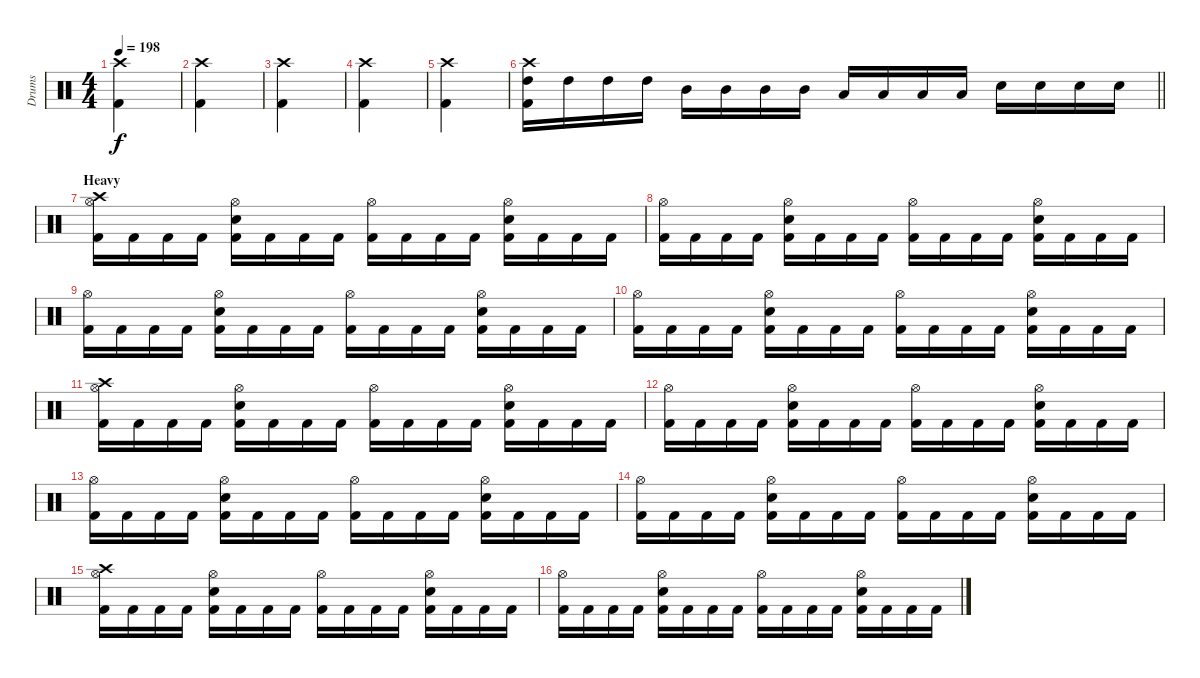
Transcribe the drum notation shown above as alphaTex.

\track ("Drums" "Drums") {instrument percussion}
\staff {score}
\articulation defaults
\ts (4 4)
\tempo 198
\clef neutral
\ks c
("Crash high (hit)" "Kick (hit) 2").4{dy f} |
("Crash high (hit)" "Kick (hit) 2").4 |
("Crash high (hit)" "Kick (hit) 2").4 |
("Crash high (hit)" "Kick (hit) 2").4 |
("Crash high (hit)" "Kick (hit) 2").4 |
\barLineRight lightlight
("Crash high (hit)" "High Tom (hit)" "Kick (hit) 2").16 "High Tom (hit)".16 "High Tom (hit)".16 "High Tom (hit)".16 "Mid Tom (hit)".16 "Mid Tom (hit)".16 "Mid Tom (hit)".16 "Mid Tom (hit)".16 "Low Tom (hit)".16 "Low Tom (hit)".16 "Low Tom (hit)".16 "Low Tom (hit)".16 "Snare (hit) 2".16 "Snare (hit) 2".16 "Snare (hit) 2".16 "Snare (hit) 2".16 |
\section ("" "Heavy")
("Crash high (hit)" "Hi-Hat (open)" "Kick (hit) 2").16 "Kick (hit) 2".16 "Kick (hit) 2".16 "Kick (hit) 2".16 ("Hi-Hat (open)" "Snare (hit) 2" "Kick (hit) 2").16 "Kick (hit) 2".16 "Kick (hit) 2".16 "Kick (hit) 2".16 ("Hi-Hat (open)" "Kick (hit) 2").16 "Kick (hit) 2".16 "Kick (hit) 2".16 "Kick (hit) 2".16 ("Hi-Hat (open)" "Snare (hit) 2" "Kick (hit) 2").16 "Kick (hit) 2".16 "Kick (hit) 2".16 "Kick (hit) 2".16 |
("Hi-Hat (open)" "Kick (hit) 2").16 "Kick (hit) 2".16 "Kick (hit) 2".16 "Kick (hit) 2".16 ("Hi-Hat (open)" "Snare (hit) 2" "Kick (hit) 2").16 "Kick (hit) 2".16 "Kick (hit) 2".16 "Kick (hit) 2".16 ("Hi-Hat (open)" "Kick (hit) 2").16 "Kick (hit) 2".16 "Kick (hit) 2".16 "Kick (hit) 2".16 ("Hi-Hat (open)" "Snare (hit) 2" "Kick (hit) 2").16 "Kick (hit) 2".16 "Kick (hit) 2".16 "Kick (hit) 2".16 |
("Hi-Hat (open)" "Kick (hit) 2").16 "Kick (hit) 2".16 "Kick (hit) 2".16 "Kick (hit) 2".16 ("Hi-Hat (open)" "Snare (hit) 2" "Kick (hit) 2").16 "Kick (hit) 2".16 "Kick (hit) 2".16 "Kick (hit) 2".16 ("Hi-Hat (open)" "Kick (hit) 2").16 "Kick (hit) 2".16 "Kick (hit) 2".16 "Kick (hit) 2".16 ("Hi-Hat (open)" "Snare (hit) 2" "Kick (hit) 2").16 "Kick (hit) 2".16 "Kick (hit) 2".16 "Kick (hit) 2".16 |
("Hi-Hat (open)" "Kick (hit) 2").16 "Kick (hit) 2".16 "Kick (hit) 2".16 "Kick (hit) 2".16 ("Hi-Hat (open)" "Snare (hit) 2" "Kick (hit) 2").16 "Kick (hit) 2".16 "Kick (hit) 2".16 "Kick (hit) 2".16 ("Hi-Hat (open)" "Kick (hit) 2").16 "Kick (hit) 2".16 "Kick (hit) 2".16 "Kick (hit) 2".16 ("Hi-Hat (open)" "Snare (hit) 2" "Kick (hit) 2").16 "Kick (hit) 2".16 "Kick (hit) 2".16 "Kick (hit) 2".16 |
("Crash high (hit)" "Hi-Hat (open)" "Kick (hit) 2").16 "Kick (hit) 2".16 "Kick (hit) 2".16 "Kick (hit) 2".16 ("Hi-Hat (open)" "Snare (hit) 2" "Kick (hit) 2").16 "Kick (hit) 2".16 "Kick (hit) 2".16 "Kick (hit) 2".16 ("Hi-Hat (open)" "Kick (hit) 2").16 "Kick (hit) 2".16 "Kick (hit) 2".16 "Kick (hit) 2".16 ("Hi-Hat (open)" "Snare (hit) 2" "Kick (hit) 2").16 "Kick (hit) 2".16 "Kick (hit) 2".16 "Kick (hit) 2".16 |
("Hi-Hat (open)" "Kick (hit) 2").16 "Kick (hit) 2".16 "Kick (hit) 2".16 "Kick (hit) 2".16 ("Hi-Hat (open)" "Snare (hit) 2" "Kick (hit) 2").16 "Kick (hit) 2".16 "Kick (hit) 2".16 "Kick (hit) 2".16 ("Hi-Hat (open)" "Kick (hit) 2").16 "Kick (hit) 2".16 "Kick (hit) 2".16 "Kick (hit) 2".16 ("Hi-Hat (open)" "Snare (hit) 2" "Kick (hit) 2").16 "Kick (hit) 2".16 "Kick (hit) 2".16 "Kick (hit) 2".16 |
("Hi-Hat (open)" "Kick (hit) 2").16 "Kick (hit) 2".16 "Kick (hit) 2".16 "Kick (hit) 2".16 ("Hi-Hat (open)" "Snare (hit) 2" "Kick (hit) 2").16 "Kick (hit) 2".16 "Kick (hit) 2".16 "Kick (hit) 2".16 ("Hi-Hat (open)" "Kick (hit) 2").16 "Kick (hit) 2".16 "Kick (hit) 2".16 "Kick (hit) 2".16 ("Hi-Hat (open)" "Snare (hit) 2" "Kick (hit) 2").16 "Kick (hit) 2".16 "Kick (hit) 2".16 "Kick (hit) 2".16 |
("Hi-Hat (open)" "Kick (hit) 2").16 "Kick (hit) 2".16 "Kick (hit) 2".16 "Kick (hit) 2".16 ("Hi-Hat (open)" "Snare (hit) 2" "Kick (hit) 2").16 "Kick (hit) 2".16 "Kick (hit) 2".16 "Kick (hit) 2".16 ("Hi-Hat (open)" "Kick (hit) 2").16 "Kick (hit) 2".16 "Kick (hit) 2".16 "Kick (hit) 2".16 ("Hi-Hat (open)" "Snare (hit) 2" "Kick (hit) 2").16 "Kick (hit) 2".16 "Kick (hit) 2".16 "Kick (hit) 2".16 |
("Crash high (hit)" "Hi-Hat (open)" "Kick (hit) 2").16 "Kick (hit) 2".16 "Kick (hit) 2".16 "Kick (hit) 2".16 ("Hi-Hat (open)" "Snare (hit) 2" "Kick (hit) 2").16 "Kick (hit) 2".16 "Kick (hit) 2".16 "Kick (hit) 2".16 ("Hi-Hat (open)" "Kick (hit) 2").16 "Kick (hit) 2".16 "Kick (hit) 2".16 "Kick (hit) 2".16 ("Hi-Hat (open)" "Snare (hit) 2" "Kick (hit) 2").16 "Kick (hit) 2".16 "Kick (hit) 2".16 "Kick (hit) 2".16 |
("Hi-Hat (open)" "Kick (hit) 2").16 "Kick (hit) 2".16 "Kick (hit) 2".16 "Kick (hit) 2".16 ("Hi-Hat (open)" "Snare (hit) 2" "Kick (hit) 2").16 "Kick (hit) 2".16 "Kick (hit) 2".16 "Kick (hit) 2".16 ("Hi-Hat (open)" "Kick (hit) 2").16 "Kick (hit) 2".16 "Kick (hit) 2".16 "Kick (hit) 2".16 ("Hi-Hat (open)" "Snare (hit) 2" "Kick (hit) 2").16 "Kick (hit) 2".16 "Kick (hit) 2".16 "Kick (hit) 2".16
